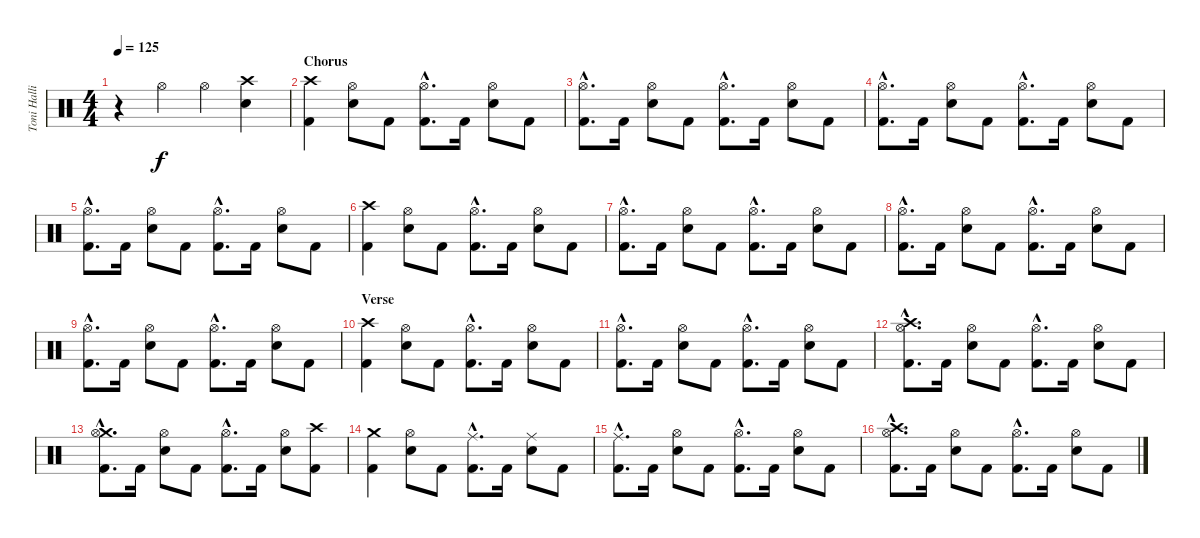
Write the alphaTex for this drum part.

\track ("Toni Hallio" "Toni Halli") {instrument percussion}
\staff {score}
\articulation defaults
\ts (4 4)
\tempo 125
\clef neutral
\ks c
r.4{dy f} "Hi-Hat (open)".4 "Hi-Hat (open)".4 ("Crash high (hit)" "Snare (hit) 2").4 |
\section ("" "Chorus")
("Crash high (hit)" "Kick (hit) 2").4 ("Snare (hit) 2" "Hi-Hat (open)").8 "Kick (hit) 2".8 ("Hi-Hat (open)"{hac} "Kick (hit) 2"{hac}).8{d} "Kick (hit) 2".16 ("Snare (hit) 2" "Hi-Hat (open)").8 "Kick (hit) 2".8 |
("Hi-Hat (open)"{hac} "Kick (hit) 2"{hac}).8{d} "Kick (hit) 2".16 ("Snare (hit) 2" "Hi-Hat (open)").8 "Kick (hit) 2".8 ("Hi-Hat (open)"{hac} "Kick (hit) 2"{hac}).8{d} "Kick (hit) 2".16 ("Snare (hit) 2" "Hi-Hat (open)").8 "Kick (hit) 2".8 |
("Hi-Hat (open)"{hac} "Kick (hit) 2"{hac}).8{d} "Kick (hit) 2".16 ("Snare (hit) 2" "Hi-Hat (open)").8 "Kick (hit) 2".8 ("Hi-Hat (open)"{hac} "Kick (hit) 2"{hac}).8{d} "Kick (hit) 2".16 ("Snare (hit) 2" "Hi-Hat (open)").8 "Kick (hit) 2".8 |
("Hi-Hat (open)"{hac} "Kick (hit) 2"{hac}).8{d} "Kick (hit) 2".16 ("Snare (hit) 2" "Hi-Hat (open)").8 "Kick (hit) 2".8 ("Hi-Hat (open)"{hac} "Kick (hit) 2"{hac}).8{d} "Kick (hit) 2".16 ("Snare (hit) 2" "Hi-Hat (open)").8 "Kick (hit) 2".8 |
("Crash high (hit)" "Kick (hit) 2").4 ("Snare (hit) 2" "Hi-Hat (open)").8 "Kick (hit) 2".8 ("Hi-Hat (open)"{hac} "Kick (hit) 2"{hac}).8{d} "Kick (hit) 2".16 ("Snare (hit) 2" "Hi-Hat (open)").8 "Kick (hit) 2".8 |
("Hi-Hat (open)"{hac} "Kick (hit) 2"{hac}).8{d} "Kick (hit) 2".16 ("Snare (hit) 2" "Hi-Hat (open)").8 "Kick (hit) 2".8 ("Hi-Hat (open)"{hac} "Kick (hit) 2"{hac}).8{d} "Kick (hit) 2".16 ("Snare (hit) 2" "Hi-Hat (open)").8 "Kick (hit) 2".8 |
("Hi-Hat (open)"{hac} "Kick (hit) 2"{hac}).8{d} "Kick (hit) 2".16 ("Snare (hit) 2" "Hi-Hat (open)").8 "Kick (hit) 2".8 ("Hi-Hat (open)"{hac} "Kick (hit) 2"{hac}).8{d} "Kick (hit) 2".16 ("Snare (hit) 2" "Hi-Hat (open)").8 "Kick (hit) 2".8 |
("Hi-Hat (open)"{hac} "Kick (hit) 2"{hac}).8{d} "Kick (hit) 2".16 ("Snare (hit) 2" "Hi-Hat (open)").8 "Kick (hit) 2".8 ("Hi-Hat (open)"{hac} "Kick (hit) 2"{hac}).8{d} "Kick (hit) 2".16 ("Snare (hit) 2" "Hi-Hat (open)").8 "Kick (hit) 2".8 |
\section ("" "Verse")
("Crash high (hit)" "Kick (hit) 2").4 ("Snare (hit) 2" "Hi-Hat (open)").8 "Kick (hit) 2".8 ("Hi-Hat (open)"{hac} "Kick (hit) 2"{hac}).8{d} "Kick (hit) 2".16 ("Snare (hit) 2" "Hi-Hat (open)").8 "Kick (hit) 2".8 |
("Hi-Hat (open)"{hac} "Kick (hit) 2"{hac}).8{d} "Kick (hit) 2".16 ("Snare (hit) 2" "Hi-Hat (open)").8 "Kick (hit) 2".8 ("Hi-Hat (open)"{hac} "Kick (hit) 2"{hac}).8{d} "Kick (hit) 2".16 ("Snare (hit) 2" "Hi-Hat (open)").8 "Kick (hit) 2".8 |
("Crash high (hit)"{hac} "Hi-Hat (open)"{hac} "Kick (hit) 2"{hac}).8{d} "Kick (hit) 2".16 ("Snare (hit) 2" "Hi-Hat (open)").8 "Kick (hit) 2".8 ("Hi-Hat (open)"{hac} "Kick (hit) 2"{hac}).8{d} "Kick (hit) 2".16 ("Snare (hit) 2" "Hi-Hat (open)").8 "Kick (hit) 2".8 |
("Crash medium (hit)"{hac} "Hi-Hat (open)"{hac} "Kick (hit) 2"{hac}).8{d} "Kick (hit) 2".16 ("Snare (hit) 2" "Hi-Hat (open)").8 "Kick (hit) 2".8 ("Hi-Hat (open)"{hac} "Kick (hit) 2"{hac}).8{d} "Kick (hit) 2".16 ("Snare (hit) 2" "Hi-Hat (open)").8 ("Crash high (hit)" "Kick (hit) 2").8 |
("Crash medium (hit)" "Kick (hit) 2").4 ("Snare (hit) 2" "Hi-Hat (open)").8 "Kick (hit) 2".8 ("Ride (middle)"{hac} "Kick (hit) 2"{hac}).8{d} "Kick (hit) 2".16 ("Snare (hit) 2" "Ride (middle)").8 "Kick (hit) 2".8 |
("Ride (middle)"{hac} "Kick (hit) 2"{hac}).8{d} "Kick (hit) 2".16 ("Snare (hit) 2" "Hi-Hat (open)").8 "Kick (hit) 2".8 ("Hi-Hat (open)"{hac} "Kick (hit) 2"{hac}).8{d} "Kick (hit) 2".16 ("Snare (hit) 2" "Hi-Hat (open)").8 "Kick (hit) 2".8 |
("Crash high (hit)"{hac} "Hi-Hat (open)"{hac} "Kick (hit) 2"{hac}).8{d} "Kick (hit) 2".16 ("Snare (hit) 2" "Hi-Hat (open)").8 "Kick (hit) 2".8 ("Hi-Hat (open)"{hac} "Kick (hit) 2"{hac}).8{d} "Kick (hit) 2".16 ("Snare (hit) 2" "Hi-Hat (open)").8 "Kick (hit) 2".8
